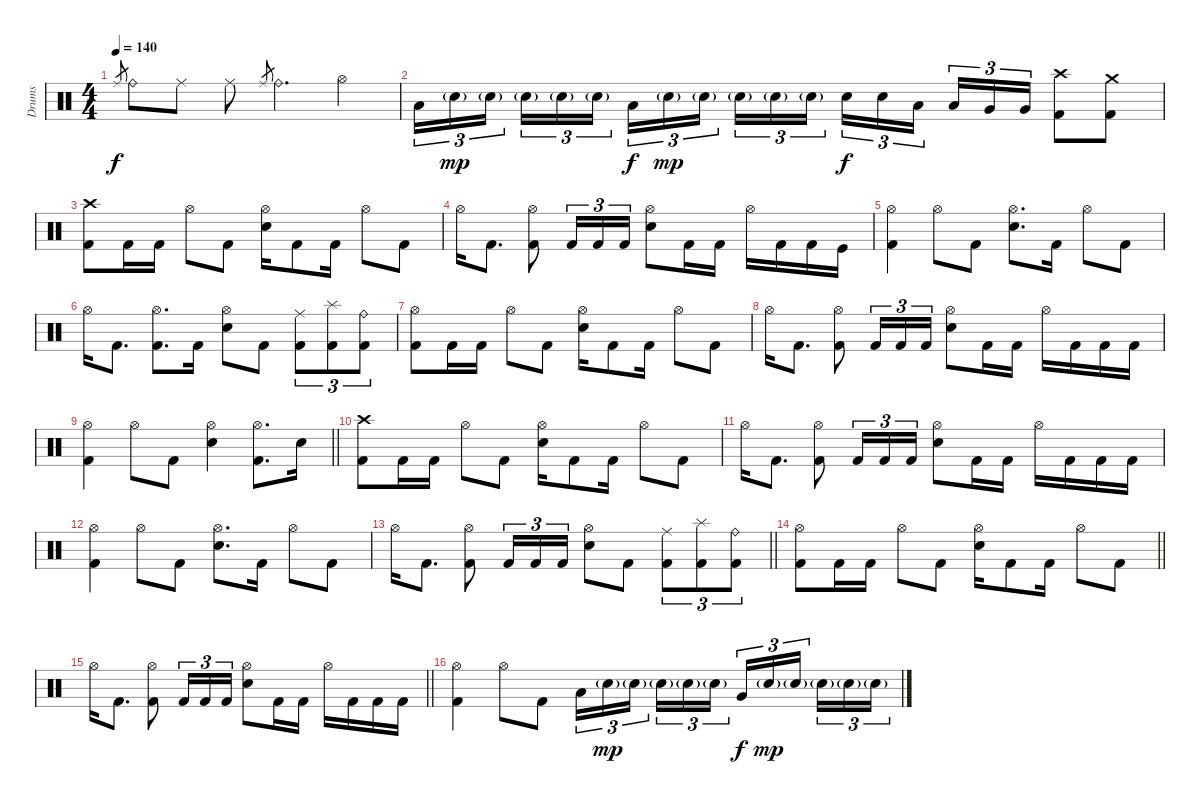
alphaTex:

\track ("Drums" "Drums") {instrument percussion}
\staff {score}
\articulation defaults
\ts (4 4)
\tempo 140
\clef neutral
\ks c "Ride (middle)".8{gr dy f} "Ride (bell)".8 "Ride (middle)".8 "Ride (middle)".8 "Ride (middle)".8{gr} "Ride (bell)".4{d} "Hi-Hat (open)".4
|
"Low Floor Tom (hit)".16{tu (3 2)} "Electric Snare (hit)"{g}.16{tu (3 2) dy mp} "Electric Snare (hit)"{g}.16{tu (3 2) beam splitsecondary} "Electric Snare (hit)"{g}.16{tu (3 2)} "Electric Snare (hit)"{g}.16{tu (3 2)} "Electric Snare (hit)"{g}.16{tu (3 2)} "Low Tom (hit)".16{tu (3 2) dy f} "Electric Snare (hit)"{g}.16{tu (3 2) dy mp} "Electric Snare (hit)"{g}.16{tu (3 2) beam splitsecondary} "Electric Snare (hit)"{g}.16{tu (3 2)} "Electric Snare (hit)"{g}.16{tu (3 2)} "Electric Snare (hit)"{g}.16{tu (3 2)} "Electric Snare (hit)".16{tu (3 2) dy f} "Electric Snare (hit)".16{tu (3 2)} "Low Tom (hit)".16{tu (3 2) beam splitsecondary} "Low Tom (hit)".16{tu (3 2)} "Very Low Tom (hit)".16{tu (3 2)} "Very Low Tom (hit)".16{tu (3 2)} ("Crash high (hit)" "Kick (hit) 2").8 ("Crash medium (hit)" "Kick (hit) 2").8 |
("Crash high (hit)" "Kick (hit) 2").8 "Kick (hit) 2".16 "Kick (hit) 2".16 "Hi-Hat (open)".8 "Kick (hit) 2".8 ("Hi-Hat (open)" "Electric Snare (hit)").16 "Kick (hit) 2".8 "Kick (hit) 2".16 "Hi-Hat (open)".8 "Kick (hit) 2".8 |
"Hi-Hat (open)".16 "Kick (hit) 2".8{d} ("Hi-Hat (open)" "Kick (hit) 2").8 "Kick (hit) 2".16{tu (3 2)} "Kick (hit) 2".16{tu (3 2)} "Kick (hit) 2".16{tu (3 2)} ("Hi-Hat (open)" "Electric Snare (hit)").8 "Kick (hit) 2".16 "Kick (hit) 2".16 "Hi-Hat (open)".16 "Kick (hit) 2".16 "Kick (hit) 2".16 "Kick (hit)".16 |
("Hi-Hat (open)" "Kick (hit) 2").4 "Hi-Hat (open)".8 "Kick (hit) 2".8 ("Hi-Hat (open)" "Electric Snare (hit)").8{d} "Kick (hit) 2".16 "Hi-Hat (open)".8 "Kick (hit) 2".8 |
"Hi-Hat (open)".16 "Kick (hit) 2".8{d} ("Hi-Hat (open)" "Kick (hit) 2").8{d} "Kick (hit) 2".16 ("Hi-Hat (open)" "Electric Snare (hit)").8 "Kick (hit) 2".8 ("Ride (middle)" "Kick (hit) 2").8{tu (3 2)} ("Splash (hit)" "Kick (hit) 2").8{tu (3 2)} ("Ride (bell)" "Kick (hit) 2").8{tu (3 2)} |
("Hi-Hat (open)" "Kick (hit) 2").8 "Kick (hit) 2".16 "Kick (hit) 2".16 "Hi-Hat (open)".8 "Kick (hit) 2".8 ("Hi-Hat (open)" "Electric Snare (hit)").16 "Kick (hit) 2".8 "Kick (hit) 2".16 "Hi-Hat (open)".8 "Kick (hit) 2".8 |
"Hi-Hat (open)".16 "Kick (hit) 2".8{d} ("Hi-Hat (open)" "Kick (hit) 2").8 "Kick (hit) 2".16{tu (3 2)} "Kick (hit) 2".16{tu (3 2)} "Kick (hit) 2".16{tu (3 2)} ("Hi-Hat (open)" "Electric Snare (hit)").8 "Kick (hit) 2".16 "Kick (hit) 2".16 "Hi-Hat (open)".16 "Kick (hit) 2".16 "Kick (hit) 2".16 "Kick (hit) 2".16 |
\barLineRight lightlight
("Hi-Hat (open)" "Kick (hit) 2").4 "Hi-Hat (open)".8 "Kick (hit) 2".8 ("Hi-Hat (open)" "Electric Snare (hit)").4 ("Hi-Hat (open)" "Kick (hit) 2").8{d} "Electric Snare (hit)".16 |
("Crash high (hit)" "Kick (hit) 2").8 "Kick (hit) 2".16 "Kick (hit) 2".16 "Hi-Hat (open)".8 "Kick (hit) 2".8 ("Hi-Hat (open)" "Electric Snare (hit)").16 "Kick (hit) 2".8 "Kick (hit) 2".16 "Hi-Hat (open)".8 "Kick (hit) 2".8 |
"Hi-Hat (open)".16 "Kick (hit) 2".8{d} ("Hi-Hat (open)" "Kick (hit) 2").8 "Kick (hit) 2".16{tu (3 2)} "Kick (hit) 2".16{tu (3 2)} "Kick (hit) 2".16{tu (3 2)} ("Hi-Hat (open)" "Electric Snare (hit)").8 "Kick (hit) 2".16 "Kick (hit) 2".16 "Hi-Hat (open)".16 "Kick (hit) 2".16 "Kick (hit) 2".16 "Kick (hit) 2".16 |
("Hi-Hat (open)" "Kick (hit) 2").4 "Hi-Hat (open)".8 "Kick (hit) 2".8 ("Hi-Hat (open)" "Electric Snare (hit)").8{d} "Kick (hit) 2".16 "Hi-Hat (open)".8 "Kick (hit) 2".8 |
\barLineRight lightlight "Hi-Hat (open)".16 "Kick (hit) 2".8{d}
("Hi-Hat (open)" "Kick (hit) 2").8 "Kick (hit) 2".16{tu (3 2)} "Kick (hit) 2".16{tu (3 2)} "Kick (hit) 2".16{tu (3 2)} ("Hi-Hat (open)" "Electric Snare (hit)").8 "Kick (hit) 2".8 ("Ride (middle)" "Kick (hit) 2").8{tu (3 2)} ("Splash (hit)" "Kick (hit) 2").8{tu (3 2)} ("Ride (bell)" "Kick (hit) 2").8{tu (3 2)} |
\barLineRight lightlight
("Hi-Hat (open)" "Kick (hit) 2").8 "Kick (hit) 2".16 "Kick (hit) 2".16 "Hi-Hat (open)".8 "Kick (hit) 2".8 ("Hi-Hat (open)" "Electric Snare (hit)").16 "Kick (hit) 2".8 "Kick (hit) 2".16 "Hi-Hat (open)".8 "Kick (hit) 2".8 |
\barLineRight lightlight "Hi-Hat (open)".16 "Kick (hit) 2".8{d}
("Hi-Hat (open)" "Kick (hit) 2").8 "Kick (hit) 2".16{tu (3 2)} "Kick (hit) 2".16{tu (3 2)} "Kick (hit) 2".16{tu (3 2)} ("Hi-Hat (open)" "Electric Snare (hit)").8 "Kick (hit) 2".16 "Kick (hit) 2".16 "Hi-Hat (open)".16 "Kick (hit) 2".16 "Kick (hit) 2".16 "Kick (hit) 2".16 |
("Hi-Hat (open)" "Kick (hit) 2").4 "Hi-Hat (open)".8 "Kick (hit) 2".8 "Low Floor Tom (hit)".16{tu (3 2)} "Electric Snare (hit)"{g}.16{tu (3 2) dy mp} "Electric Snare (hit)"{g}.16{tu (3 2) beam splitsecondary} "Electric Snare (hit)"{g}.16{tu (3 2)} "Electric Snare (hit)"{g}.16{tu (3 2)} "Electric Snare (hit)"{g}.16{tu (3 2)} "Very Low Tom (hit)".16{tu (3 2) dy f} "Electric Snare (hit)"{g}.16{tu (3 2) dy mp} "Electric Snare (hit)"{g}.16{tu (3 2) beam splitsecondary} "Electric Snare (hit)"{g}.16{tu (3 2)} "Electric Snare (hit)"{g}.16{tu (3 2)} "Electric Snare (hit)"{g}.16{tu (3 2)}
